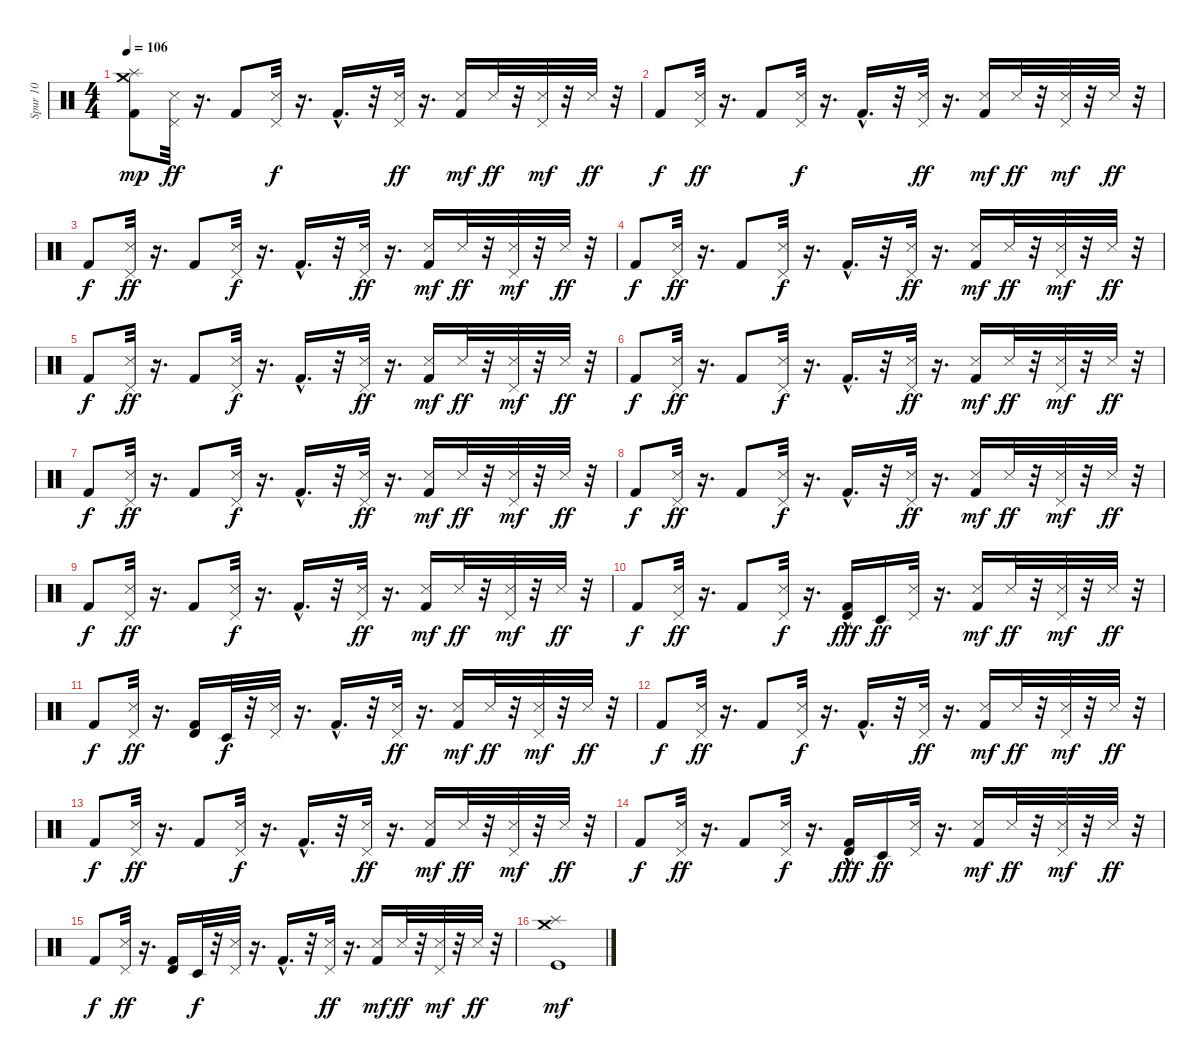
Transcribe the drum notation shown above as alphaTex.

\track ("Spur 10" "Spur 10") {instrument percussion}
\staff {score}
\articulation defaults
\ts (4 4)
\tempo 106
\clef neutral
\ks c
("Kick (hit) 2" "Splash (hit)" "Crash medium (hit)").8{dy mp} ("Pedal Hi-Hat (hit)" "Snare (side stick) 3").32{dy ff} r.16{d} "Kick (hit) 2".8 ("Pedal Hi-Hat (hit)" "Snare (side stick) 3").32{dy f} r.16{d} "Kick (hit) 2"{hac}.16{d} r.32 ("Pedal Hi-Hat (hit)" "Snare (side stick) 3").32{dy ff} r.16{d} ("Kick (hit) 2" "Snare (side stick) 3").16{dy mf} "Snare (side stick) 3".32{dy ff} r.32 ("Pedal Hi-Hat (hit)" "Snare (side stick) 3").32{dy mf} r.32 "Snare (side stick) 3".32{dy ff} r.32 |
"Kick (hit) 2".8{dy f} ("Pedal Hi-Hat (hit)" "Snare (side stick) 3").32{dy ff} r.16{d} "Kick (hit) 2".8 ("Pedal Hi-Hat (hit)" "Snare (side stick) 3").32{dy f} r.16{d} "Kick (hit) 2"{hac}.16{d} r.32 ("Pedal Hi-Hat (hit)" "Snare (side stick) 3").32{dy ff} r.16{d} ("Kick (hit) 2" "Snare (side stick) 3").16{dy mf} "Snare (side stick) 3".32{dy ff} r.32 ("Pedal Hi-Hat (hit)" "Snare (side stick) 3").32{dy mf} r.32 "Snare (side stick) 3".32{dy ff} r.32 |
"Kick (hit) 2".8{dy f} ("Pedal Hi-Hat (hit)" "Snare (side stick) 3").32{dy ff} r.16{d} "Kick (hit) 2".8 ("Pedal Hi-Hat (hit)" "Snare (side stick) 3").32{dy f} r.16{d} "Kick (hit) 2"{hac}.16{d} r.32 ("Pedal Hi-Hat (hit)" "Snare (side stick) 3").32{dy ff} r.16{d} ("Kick (hit) 2" "Snare (side stick) 3").16{dy mf} "Snare (side stick) 3".32{dy ff} r.32 ("Pedal Hi-Hat (hit)" "Snare (side stick) 3").32{dy mf} r.32 "Snare (side stick) 3".32{dy ff} r.32 |
"Kick (hit) 2".8{dy f} ("Pedal Hi-Hat (hit)" "Snare (side stick) 3").32{dy ff} r.16{d} "Kick (hit) 2".8 ("Pedal Hi-Hat (hit)" "Snare (side stick) 3").32{dy f} r.16{d} "Kick (hit) 2"{hac}.16{d} r.32 ("Pedal Hi-Hat (hit)" "Snare (side stick) 3").32{dy ff} r.16{d} ("Kick (hit) 2" "Snare (side stick) 3").16{dy mf} "Snare (side stick) 3".32{dy ff} r.32 ("Pedal Hi-Hat (hit)" "Snare (side stick) 3").32{dy mf} r.32 "Snare (side stick) 3".32{dy ff} r.32 |
"Kick (hit) 2".8{dy f} ("Pedal Hi-Hat (hit)" "Snare (side stick) 3").32{dy ff} r.16{d} "Kick (hit) 2".8 ("Pedal Hi-Hat (hit)" "Snare (side stick) 3").32{dy f} r.16{d} "Kick (hit) 2"{hac}.16{d} r.32 ("Pedal Hi-Hat (hit)" "Snare (side stick) 3").32{dy ff} r.16{d} ("Kick (hit) 2" "Snare (side stick) 3").16{dy mf} "Snare (side stick) 3".32{dy ff} r.32 ("Pedal Hi-Hat (hit)" "Snare (side stick) 3").32{dy mf} r.32 "Snare (side stick) 3".32{dy ff} r.32 |
"Kick (hit) 2".8{dy f} ("Pedal Hi-Hat (hit)" "Snare (side stick) 3").32{dy ff} r.16{d} "Kick (hit) 2".8 ("Pedal Hi-Hat (hit)" "Snare (side stick) 3").32{dy f} r.16{d} "Kick (hit) 2"{hac}.16{d} r.32 ("Pedal Hi-Hat (hit)" "Snare (side stick) 3").32{dy ff} r.16{d} ("Kick (hit) 2" "Snare (side stick) 3").16{dy mf} "Snare (side stick) 3".32{dy ff} r.32 ("Pedal Hi-Hat (hit)" "Snare (side stick) 3").32{dy mf} r.32 "Snare (side stick) 3".32{dy ff} r.32 |
"Kick (hit) 2".8{dy f} ("Pedal Hi-Hat (hit)" "Snare (side stick) 3").32{dy ff} r.16{d} "Kick (hit) 2".8 ("Pedal Hi-Hat (hit)" "Snare (side stick) 3").32{dy f} r.16{d} "Kick (hit) 2"{hac}.16{d} r.32 ("Pedal Hi-Hat (hit)" "Snare (side stick) 3").32{dy ff} r.16{d} ("Kick (hit) 2" "Snare (side stick) 3").16{dy mf} "Snare (side stick) 3".32{dy ff} r.32 ("Pedal Hi-Hat (hit)" "Snare (side stick) 3").32{dy mf} r.32 "Snare (side stick) 3".32{dy ff} r.32 |
"Kick (hit) 2".8{dy f} ("Pedal Hi-Hat (hit)" "Snare (side stick) 3").32{dy ff} r.16{d} "Kick (hit) 2".8 ("Pedal Hi-Hat (hit)" "Snare (side stick) 3").32{dy f} r.16{d} "Kick (hit) 2"{hac}.16{d} r.32 ("Pedal Hi-Hat (hit)" "Snare (side stick) 3").32{dy ff} r.16{d} ("Kick (hit) 2" "Snare (side stick) 3").16{dy mf} "Snare (side stick) 3".32{dy ff} r.32 ("Pedal Hi-Hat (hit)" "Snare (side stick) 3").32{dy mf} r.32 "Snare (side stick) 3".32{dy ff} r.32 |
"Kick (hit) 2".8{dy f} ("Pedal Hi-Hat (hit)" "Snare (side stick) 3").32{dy ff} r.16{d} "Kick (hit) 2".8 ("Pedal Hi-Hat (hit)" "Snare (side stick) 3").32{dy f} r.16{d} "Kick (hit) 2"{hac}.16{d} r.32 ("Pedal Hi-Hat (hit)" "Snare (side stick) 3").32{dy ff} r.16{d} ("Kick (hit) 2" "Snare (side stick) 3").16{dy mf} "Snare (side stick) 3".32{dy ff} r.32 ("Pedal Hi-Hat (hit)" "Snare (side stick) 3").32{dy mf} r.32 "Snare (side stick) 3".32{dy ff} r.32 |
"Kick (hit) 2".8{dy f} ("Pedal Hi-Hat (hit)" "Snare (side stick) 3").32{dy ff} r.16{d} "Kick (hit) 2".8 ("Pedal Hi-Hat (hit)" "Snare (side stick) 3").32{dy f} r.16{d} ("Kick (hit) 2"{hac} "Timbale high (hit)"{hac}).16{dy fff} "Timbale low (hit)".16{dy ff} ("Pedal Hi-Hat (hit)" "Snare (side stick) 3").32 r.16{d} ("Kick (hit) 2" "Snare (side stick) 3").16{dy mf} "Snare (side stick) 3".32{dy ff} r.32 ("Pedal Hi-Hat (hit)" "Snare (side stick) 3").32{dy mf} r.32 "Snare (side stick) 3".32{dy ff} r.32 |
"Kick (hit) 2".8{dy f} ("Pedal Hi-Hat (hit)" "Snare (side stick) 3").32{dy ff} r.16{d} ("Kick (hit) 2" "Timbale high (hit)").16 "Timbale low (hit)".32{dy f} r.32 ("Pedal Hi-Hat (hit)" "Snare (side stick) 3").32 r.16{d} "Kick (hit) 2"{hac}.16{d} r.32 ("Pedal Hi-Hat (hit)" "Snare (side stick) 3").32{dy ff} r.16{d} ("Kick (hit) 2" "Snare (side stick) 3").16{dy mf} "Snare (side stick) 3".32{dy ff} r.32 ("Pedal Hi-Hat (hit)" "Snare (side stick) 3").32{dy mf} r.32 "Snare (side stick) 3".32{dy ff} r.32 |
"Kick (hit) 2".8{dy f} ("Pedal Hi-Hat (hit)" "Snare (side stick) 3").32{dy ff} r.16{d} "Kick (hit) 2".8 ("Pedal Hi-Hat (hit)" "Snare (side stick) 3").32{dy f} r.16{d} "Kick (hit) 2"{hac}.16{d} r.32 ("Pedal Hi-Hat (hit)" "Snare (side stick) 3").32{dy ff} r.16{d} ("Kick (hit) 2" "Snare (side stick) 3").16{dy mf} "Snare (side stick) 3".32{dy ff} r.32 ("Pedal Hi-Hat (hit)" "Snare (side stick) 3").32{dy mf} r.32 "Snare (side stick) 3".32{dy ff} r.32 |
"Kick (hit) 2".8{dy f} ("Pedal Hi-Hat (hit)" "Snare (side stick) 3").32{dy ff} r.16{d} "Kick (hit) 2".8 ("Pedal Hi-Hat (hit)" "Snare (side stick) 3").32{dy f} r.16{d} "Kick (hit) 2"{hac}.16{d} r.32 ("Pedal Hi-Hat (hit)" "Snare (side stick) 3").32{dy ff} r.16{d} ("Kick (hit) 2" "Snare (side stick) 3").16{dy mf} "Snare (side stick) 3".32{dy ff} r.32 ("Pedal Hi-Hat (hit)" "Snare (side stick) 3").32{dy mf} r.32 "Snare (side stick) 3".32{dy ff} r.32 |
"Kick (hit) 2".8{dy f} ("Pedal Hi-Hat (hit)" "Snare (side stick) 3").32{dy ff} r.16{d} "Kick (hit) 2".8 ("Pedal Hi-Hat (hit)" "Snare (side stick) 3").32{dy f} r.16{d} ("Kick (hit) 2"{hac} "Timbale high (hit)"{hac}).16{dy fff} "Timbale low (hit)".16{dy ff} ("Pedal Hi-Hat (hit)" "Snare (side stick) 3").32 r.16{d} ("Kick (hit) 2" "Snare (side stick) 3").16{dy mf} "Snare (side stick) 3".32{dy ff} r.32 ("Pedal Hi-Hat (hit)" "Snare (side stick) 3").32{dy mf} r.32 "Snare (side stick) 3".32{dy ff} r.32 |
"Kick (hit) 2".8{dy f} ("Pedal Hi-Hat (hit)" "Snare (side stick) 3").32{dy ff} r.16{d} ("Kick (hit) 2" "Timbale high (hit)").16 "Timbale low (hit)".32{dy f} r.32 ("Pedal Hi-Hat (hit)" "Snare (side stick) 3").32 r.16{d} "Kick (hit) 2"{hac}.16{d} r.32 ("Pedal Hi-Hat (hit)" "Snare (side stick) 3").32{dy ff} r.16{d} ("Kick (hit) 2" "Snare (side stick) 3").16{dy mf} "Snare (side stick) 3".32{dy ff} r.32 ("Pedal Hi-Hat (hit)" "Snare (side stick) 3").32{dy mf} r.32 "Snare (side stick) 3".32{dy ff} r.32 |
("Crash medium (hit)" "Splash (hit)" "Kick (hit)").1{dy mf}
